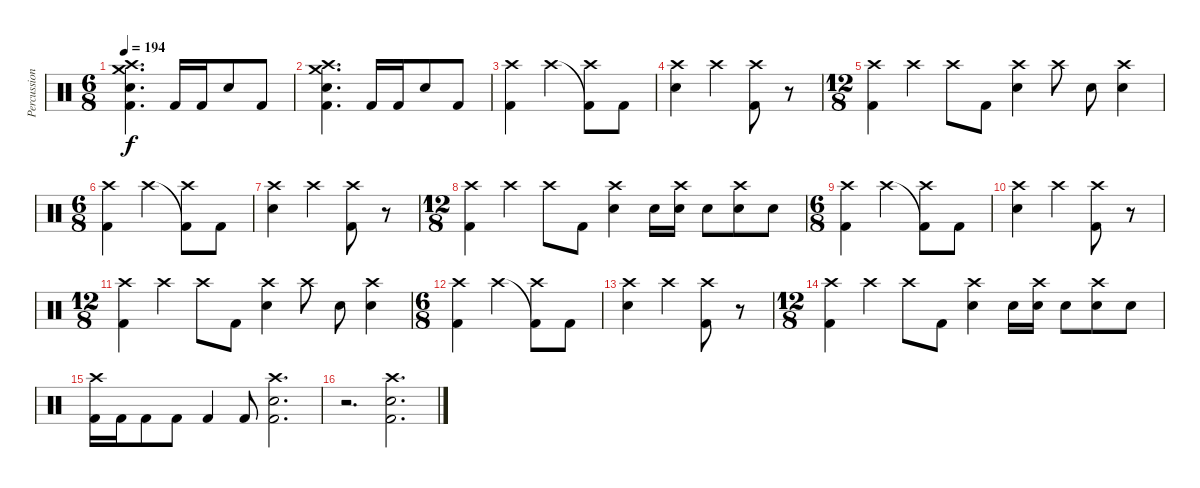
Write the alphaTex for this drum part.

\track ("Percussion" "Percussion") {instrument percussion}
\staff {score}
\articulation defaults
\ts (6 8)
\tempo 194
\clef neutral
\ks c
("Kick (hit) 2" "Snare (hit) 2" "Crash high (hit)" "Crash medium (hit)").4{d dy f} "Kick (hit) 2".16 "Kick (hit) 2".16 "Snare (hit) 2".8 "Kick (hit) 2".8 |
("Kick (hit) 2" "Snare (hit) 2" "Crash high (hit)" "Crash medium (hit)").4{d} "Kick (hit) 2".16 "Kick (hit) 2".16 "Snare (hit) 2".8 "Kick (hit) 2".8 |
("Kick (hit) 2" "Crash high (hit)").4 "Crash high (hit)".4 ("Kick (hit) 2"{t} "Crash high (hit)").8 "Kick (hit) 2".8 |
("Snare (hit) 2" "Crash high (hit)").4 "Crash high (hit)".4 ("Kick (hit) 2" "Crash high (hit)").8 r.8 |
\ts (12 8)
("Kick (hit) 2" "Crash high (hit)").4 "Crash high (hit)".4 "Crash high (hit)".8 "Kick (hit) 2".8 ("Snare (hit) 2" "Crash high (hit)").4 "Crash high (hit)".8 "Snare (hit) 2".8 ("Snare (hit) 2" "Crash high (hit)").4 |
\ts (6 8)
("Kick (hit) 2" "Crash high (hit)").4 "Crash high (hit)".4 ("Kick (hit) 2"{t} "Crash high (hit)").8 "Kick (hit) 2".8 |
("Snare (hit) 2" "Crash high (hit)").4 "Crash high (hit)".4 ("Kick (hit) 2" "Crash high (hit)").8 r.8 |
\ts (12 8)
("Kick (hit) 2" "Crash high (hit)").4 "Crash high (hit)".4 "Crash high (hit)".8 "Kick (hit) 2".8 ("Snare (hit) 2" "Crash high (hit)").4 "Snare (hit) 2".16 ("Snare (hit) 2" "Crash high (hit)").16 "Snare (hit) 2".8 ("Snare (hit) 2" "Crash high (hit)").8 "Snare (hit) 2".8 |
\ts (6 8)
("Kick (hit) 2" "Crash high (hit)").4 "Crash high (hit)".4 ("Kick (hit) 2"{t} "Crash high (hit)").8 "Kick (hit) 2".8 |
("Snare (hit) 2" "Crash high (hit)").4 "Crash high (hit)".4 ("Kick (hit) 2" "Crash high (hit)").8 r.8 |
\ts (12 8)
("Kick (hit) 2" "Crash high (hit)").4 "Crash high (hit)".4 "Crash high (hit)".8 "Kick (hit) 2".8 ("Snare (hit) 2" "Crash high (hit)").4 "Crash high (hit)".8 "Snare (hit) 2".8 ("Snare (hit) 2" "Crash high (hit)").4 |
\ts (6 8)
("Kick (hit) 2" "Crash high (hit)").4 "Crash high (hit)".4 ("Kick (hit) 2"{t} "Crash high (hit)").8 "Kick (hit) 2".8 |
("Snare (hit) 2" "Crash high (hit)").4 "Crash high (hit)".4 ("Kick (hit) 2" "Crash high (hit)").8 r.8 |
\ts (12 8)
("Kick (hit) 2" "Crash high (hit)").4 "Crash high (hit)".4 "Crash high (hit)".8 "Kick (hit) 2".8 ("Snare (hit) 2" "Crash high (hit)").4 "Snare (hit) 2".16 ("Snare (hit) 2" "Crash high (hit)").16 "Snare (hit) 2".8 ("Snare (hit) 2" "Crash high (hit)").8 "Snare (hit) 2".8 |
("Kick (hit) 2" "Crash high (hit)").16 "Kick (hit) 2".16 "Kick (hit) 2".8 "Kick (hit) 2".8 "Kick (hit) 2".4 "Kick (hit) 2".8 ("Snare (hit) 2" "Kick (hit) 2" "Crash high (hit)").2{d} |
r.2{d} ("Snare (hit) 2" "Kick (hit) 2" "Crash high (hit)").2{d}
